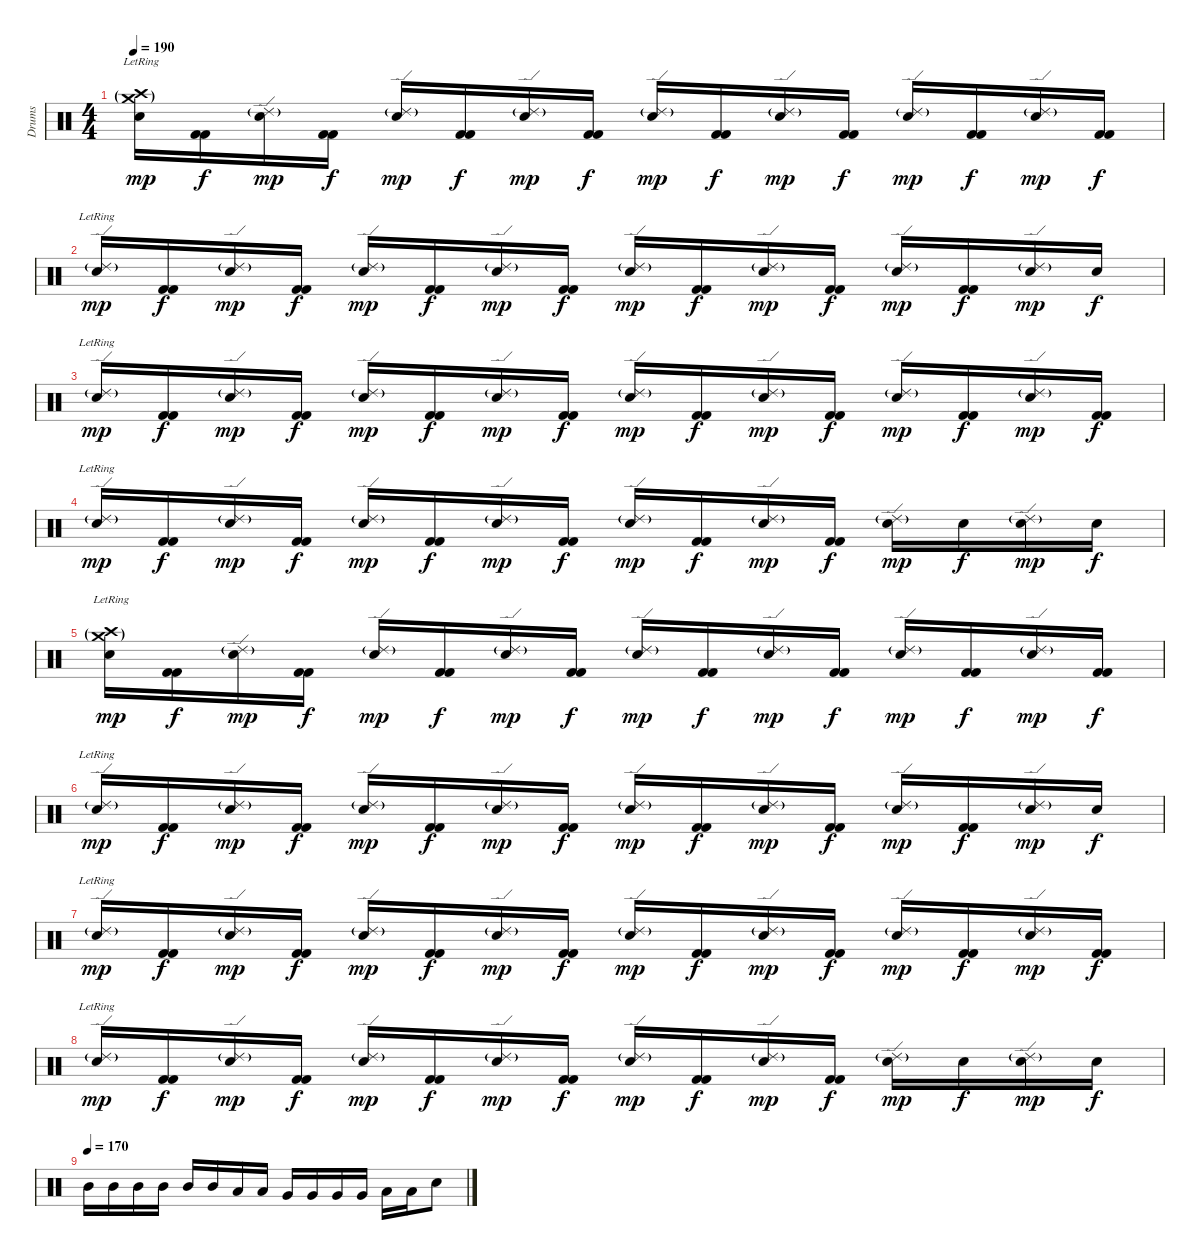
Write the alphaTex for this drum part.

\track ("Drums" "Drums") {instrument percussion}
\staff {score}
\articulation defaults
\ts (4 4)
\tempo 190
\clef neutral
\ks c
("Crash medium (hit)"{g lr} "Crash high (hit)"{g} "Electric Snare (hit)").16{dy mp} ("Kick (hit) 2" "Kick (hit) 2").16{dy f} ("Ride (edge) 2"{g} "Electric Snare (hit)").16{dy mp} ("Kick (hit) 2" "Kick (hit) 2").16{dy f} ("Ride (edge) 2"{g} "Electric Snare (hit)").16{dy mp} ("Kick (hit) 2" "Kick (hit) 2").16{dy f} ("Ride (edge) 2"{g} "Electric Snare (hit)").16{dy mp} ("Kick (hit) 2" "Kick (hit) 2").16{dy f} ("Ride (edge) 2"{g} "Electric Snare (hit)").16{dy mp} ("Kick (hit) 2" "Kick (hit) 2").16{dy f} ("Ride (edge) 2"{g} "Electric Snare (hit)").16{dy mp} ("Kick (hit) 2" "Kick (hit) 2").16{dy f} ("Ride (edge) 2"{g} "Electric Snare (hit)").16{dy mp} ("Kick (hit) 2" "Kick (hit) 2").16{dy f} ("Ride (edge) 2"{g} "Electric Snare (hit)").16{dy mp} ("Kick (hit) 2" "Kick (hit) 2").16{dy f} |
("Ride (edge) 2"{g lr} "Electric Snare (hit)").16{dy mp} ("Kick (hit) 2" "Kick (hit) 2").16{dy f} ("Ride (edge) 2"{g} "Electric Snare (hit)").16{dy mp} ("Kick (hit) 2" "Kick (hit) 2").16{dy f} ("Ride (edge) 2"{g} "Electric Snare (hit)").16{dy mp} ("Kick (hit) 2" "Kick (hit) 2").16{dy f} ("Ride (edge) 2"{g} "Electric Snare (hit)").16{dy mp} ("Kick (hit) 2" "Kick (hit) 2").16{dy f} ("Ride (edge) 2"{g} "Electric Snare (hit)").16{dy mp} ("Kick (hit) 2" "Kick (hit) 2").16{dy f} ("Ride (edge) 2"{g} "Electric Snare (hit)").16{dy mp} ("Kick (hit) 2" "Kick (hit) 2").16{dy f} ("Ride (edge) 2"{g} "Electric Snare (hit)").16{dy mp} ("Kick (hit) 2" "Kick (hit) 2").16{dy f} ("Ride (edge) 2"{g} "Electric Snare (hit)").16{dy mp} "Electric Snare (hit)".16{dy f} |
("Ride (edge) 2"{g lr} "Electric Snare (hit)").16{dy mp} ("Kick (hit) 2" "Kick (hit) 2").16{dy f} ("Ride (edge) 2"{g} "Electric Snare (hit)").16{dy mp} ("Kick (hit) 2" "Kick (hit) 2").16{dy f} ("Ride (edge) 2"{g} "Electric Snare (hit)").16{dy mp} ("Kick (hit) 2" "Kick (hit) 2").16{dy f} ("Ride (edge) 2"{g} "Electric Snare (hit)").16{dy mp} ("Kick (hit) 2" "Kick (hit) 2").16{dy f} ("Ride (edge) 2"{g} "Electric Snare (hit)").16{dy mp} ("Kick (hit) 2" "Kick (hit) 2").16{dy f} ("Ride (edge) 2"{g} "Electric Snare (hit)").16{dy mp} ("Kick (hit) 2" "Kick (hit) 2").16{dy f} ("Ride (edge) 2"{g} "Electric Snare (hit)").16{dy mp} ("Kick (hit) 2" "Kick (hit) 2").16{dy f} ("Ride (edge) 2"{g} "Electric Snare (hit)").16{dy mp} ("Kick (hit) 2" "Kick (hit) 2").16{dy f} |
("Ride (edge) 2"{g lr} "Electric Snare (hit)").16{dy mp} ("Kick (hit) 2" "Kick (hit) 2").16{dy f} ("Ride (edge) 2"{g} "Electric Snare (hit)").16{dy mp} ("Kick (hit) 2" "Kick (hit) 2").16{dy f} ("Ride (edge) 2"{g} "Electric Snare (hit)").16{dy mp} ("Kick (hit) 2" "Kick (hit) 2").16{dy f} ("Ride (edge) 2"{g} "Electric Snare (hit)").16{dy mp} ("Kick (hit) 2" "Kick (hit) 2").16{dy f} ("Ride (edge) 2"{g} "Electric Snare (hit)").16{dy mp} ("Kick (hit) 2" "Kick (hit) 2").16{dy f} ("Ride (edge) 2"{g} "Electric Snare (hit)").16{dy mp} ("Kick (hit) 2" "Kick (hit) 2").16{dy f} ("Ride (edge) 2"{g} "Electric Snare (hit)").16{dy mp} "Electric Snare (hit)".16{dy f} ("Ride (edge) 2"{g} "Electric Snare (hit)").16{dy mp} "Electric Snare (hit)".16{dy f} |
("Crash medium (hit)"{g lr} "Crash high (hit)"{g} "Electric Snare (hit)").16{dy mp} ("Kick (hit) 2" "Kick (hit) 2").16{dy f} ("Ride (edge) 2"{g} "Electric Snare (hit)").16{dy mp} ("Kick (hit) 2" "Kick (hit) 2").16{dy f} ("Ride (edge) 2"{g} "Electric Snare (hit)").16{dy mp} ("Kick (hit) 2" "Kick (hit) 2").16{dy f} ("Ride (edge) 2"{g} "Electric Snare (hit)").16{dy mp} ("Kick (hit) 2" "Kick (hit) 2").16{dy f} ("Ride (edge) 2"{g} "Electric Snare (hit)").16{dy mp} ("Kick (hit) 2" "Kick (hit) 2").16{dy f} ("Ride (edge) 2"{g} "Electric Snare (hit)").16{dy mp} ("Kick (hit) 2" "Kick (hit) 2").16{dy f} ("Ride (edge) 2"{g} "Electric Snare (hit)").16{dy mp} ("Kick (hit) 2" "Kick (hit) 2").16{dy f} ("Ride (edge) 2"{g} "Electric Snare (hit)").16{dy mp} ("Kick (hit) 2" "Kick (hit) 2").16{dy f} |
("Ride (edge) 2"{g lr} "Electric Snare (hit)").16{dy mp} ("Kick (hit) 2" "Kick (hit) 2").16{dy f} ("Ride (edge) 2"{g} "Electric Snare (hit)").16{dy mp} ("Kick (hit) 2" "Kick (hit) 2").16{dy f} ("Ride (edge) 2"{g} "Electric Snare (hit)").16{dy mp} ("Kick (hit) 2" "Kick (hit) 2").16{dy f} ("Ride (edge) 2"{g} "Electric Snare (hit)").16{dy mp} ("Kick (hit) 2" "Kick (hit) 2").16{dy f} ("Ride (edge) 2"{g} "Electric Snare (hit)").16{dy mp} ("Kick (hit) 2" "Kick (hit) 2").16{dy f} ("Ride (edge) 2"{g} "Electric Snare (hit)").16{dy mp} ("Kick (hit) 2" "Kick (hit) 2").16{dy f} ("Ride (edge) 2"{g} "Electric Snare (hit)").16{dy mp} ("Kick (hit) 2" "Kick (hit) 2").16{dy f} ("Ride (edge) 2"{g} "Electric Snare (hit)").16{dy mp} "Electric Snare (hit)".16{dy f} |
("Ride (edge) 2"{g lr} "Electric Snare (hit)").16{dy mp} ("Kick (hit) 2" "Kick (hit) 2").16{dy f} ("Ride (edge) 2"{g} "Electric Snare (hit)").16{dy mp} ("Kick (hit) 2" "Kick (hit) 2").16{dy f} ("Ride (edge) 2"{g} "Electric Snare (hit)").16{dy mp} ("Kick (hit) 2" "Kick (hit) 2").16{dy f} ("Ride (edge) 2"{g} "Electric Snare (hit)").16{dy mp} ("Kick (hit) 2" "Kick (hit) 2").16{dy f} ("Ride (edge) 2"{g} "Electric Snare (hit)").16{dy mp} ("Kick (hit) 2" "Kick (hit) 2").16{dy f} ("Ride (edge) 2"{g} "Electric Snare (hit)").16{dy mp} ("Kick (hit) 2" "Kick (hit) 2").16{dy f} ("Ride (edge) 2"{g} "Electric Snare (hit)").16{dy mp} ("Kick (hit) 2" "Kick (hit) 2").16{dy f} ("Ride (edge) 2"{g} "Electric Snare (hit)").16{dy mp} ("Kick (hit) 2" "Kick (hit) 2").16{dy f} |
("Ride (edge) 2"{g lr} "Electric Snare (hit)").16{dy mp} ("Kick (hit) 2" "Kick (hit) 2").16{dy f} ("Ride (edge) 2"{g} "Electric Snare (hit)").16{dy mp} ("Kick (hit) 2" "Kick (hit) 2").16{dy f} ("Ride (edge) 2"{g} "Electric Snare (hit)").16{dy mp} ("Kick (hit) 2" "Kick (hit) 2").16{dy f} ("Ride (edge) 2"{g} "Electric Snare (hit)").16{dy mp} ("Kick (hit) 2" "Kick (hit) 2").16{dy f} ("Ride (edge) 2"{g} "Electric Snare (hit)").16{dy mp} ("Kick (hit) 2" "Kick (hit) 2").16{dy f} ("Ride (edge) 2"{g} "Electric Snare (hit)").16{dy mp} ("Kick (hit) 2" "Kick (hit) 2").16{dy f} ("Ride (edge) 2"{g} "Electric Snare (hit)").16{dy mp} "Electric Snare (hit)".16{dy f} ("Ride (edge) 2"{g} "Electric Snare (hit)").16{dy mp} "Electric Snare (hit)".16{dy f} |
\tempo (170)
"Mid Tom (hit)".16 "Mid Tom (hit)".16 "Mid Tom (hit)".16 "Mid Tom (hit)".16 "Mid Tom (hit)".16 "Mid Tom (hit)".16 "Low Tom (hit)".16 "Low Tom (hit)".16 "Very Low Tom (hit)".16 "Very Low Tom (hit)".16 "Very Low Tom (hit)".16 "Very Low Tom (hit)".16 "Low Floor Tom (hit)".16 "Low Floor Tom (hit)".16 "Electric Snare (hit)".8
